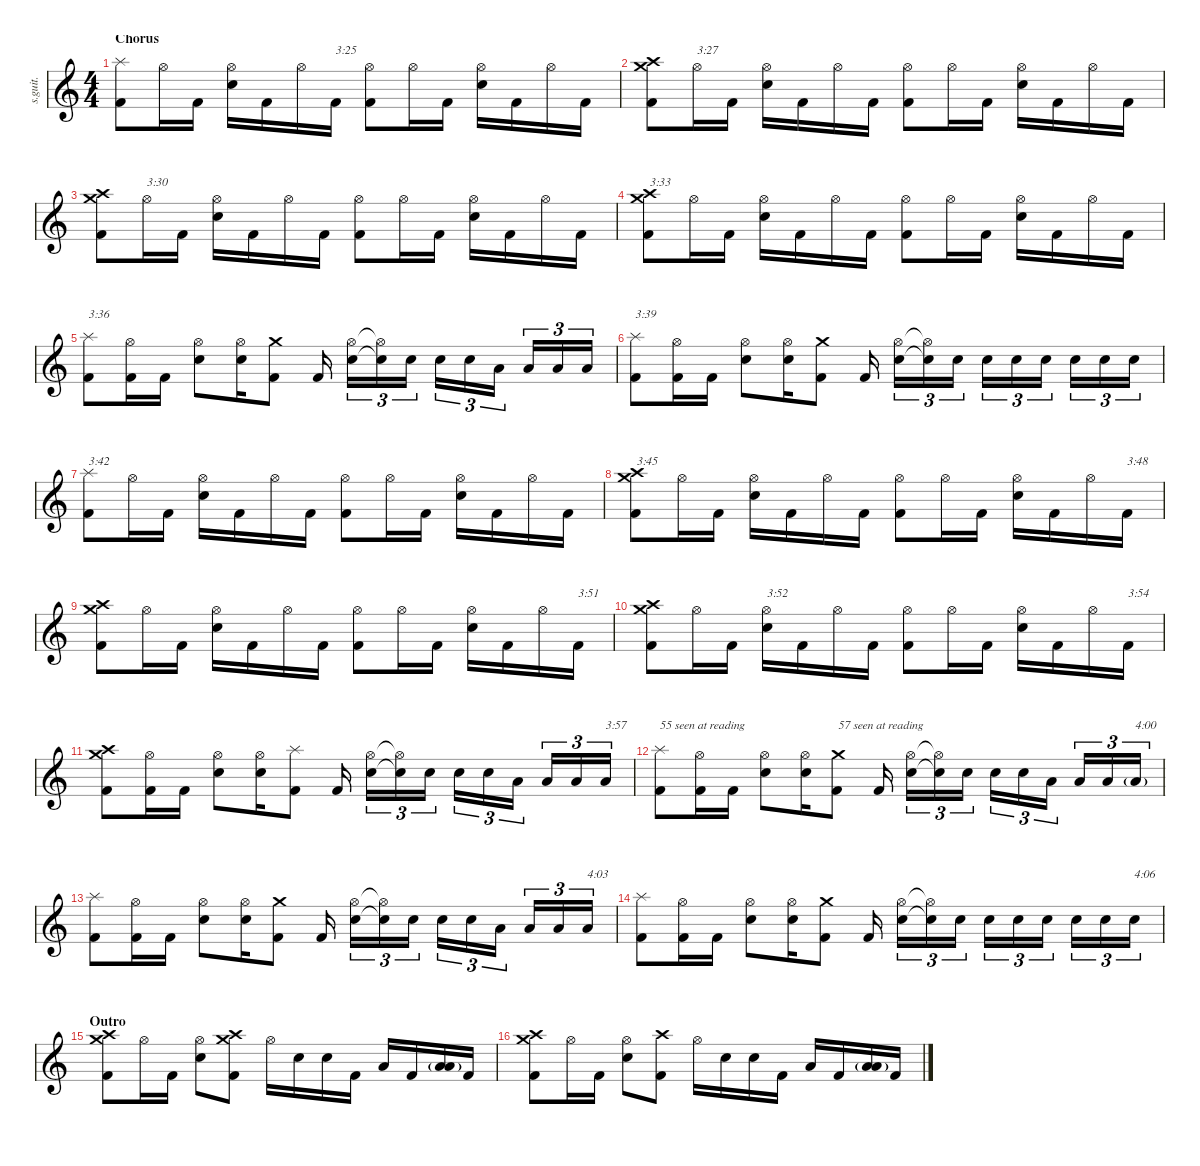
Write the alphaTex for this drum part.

\defaultSystemsLayout 4
\hideDynamics
\bracketExtendMode nobrackets
\track ("Dave Grohl | Drums" "s.guit.") {instrument percussion}
\staff {score}
\articulation defaults
\ts (4 4)
\section ("" "Chorus")
\tempo (79 hide)
\clef g2
\ks c
("Splash (hit)" "Kick (hit) 2").8{lyrics (0 "") lyrics (1 "") lyrics (2 "") lyrics (3 "") lyrics (4 "") dy fff} "Hi-Hat (open)".16{lyrics (0 "") lyrics (1 "") lyrics (2 "") lyrics (3 "") lyrics (4 "")} "Kick (hit) 2".16{lyrics (0 "") lyrics (1 "") lyrics (2 "") lyrics (3 "") lyrics (4 "")} ("Hi-Hat (open)" "Snare (hit) 2").16{lyrics (0 "") lyrics (1 "") lyrics (2 "") lyrics (3 "") lyrics (4 "") dy f} "Kick (hit) 2".16{lyrics (0 "") lyrics (1 "") lyrics (2 "") lyrics (3 "") lyrics (4 "") dy fff} "Hi-Hat (open)".16{lyrics (0 "") lyrics (1 "") lyrics (2 "") lyrics (3 "") lyrics (4 "") dy f} "Kick (hit) 2".16{txt "3:25" lyrics (0 "") lyrics (1 "") lyrics (2 "") lyrics (3 "") lyrics (4 "") dy fff} ("Hi-Hat (open)" "Kick (hit) 2").8{lyrics (0 "") lyrics (1 "") lyrics (2 "") lyrics (3 "") lyrics (4 "") dy f} "Hi-Hat (open)".16{lyrics (0 "") lyrics (1 "") lyrics (2 "") lyrics (3 "") lyrics (4 "")} "Kick (hit) 2".16{lyrics (0 "") lyrics (1 "") lyrics (2 "") lyrics (3 "") lyrics (4 "") dy fff} ("Hi-Hat (open)" "Snare (hit) 2").16{lyrics (0 "") lyrics (1 "") lyrics (2 "") lyrics (3 "") lyrics (4 "") dy f} "Kick (hit) 2".16{lyrics (0 "") lyrics (1 "") lyrics (2 "") lyrics (3 "") lyrics (4 "") dy fff} "Hi-Hat (open)".16{lyrics (0 "") lyrics (1 "") lyrics (2 "") lyrics (3 "") lyrics (4 "") dy f} "Kick (hit) 2".16{lyrics (0 "") lyrics (1 "") lyrics (2 "") lyrics (3 "") lyrics (4 "") dy fff} |
("Crash medium (hit)" "Crash high (hit)" "Kick (hit) 2").8{lyrics (0 "") lyrics (1 "") lyrics (2 "") lyrics (3 "") lyrics (4 "") dy f} "Hi-Hat (open)".16{txt "3:27" lyrics (0 "") lyrics (1 "") lyrics (2 "") lyrics (3 "") lyrics (4 "")} "Kick (hit) 2".16{lyrics (0 "") lyrics (1 "") lyrics (2 "") lyrics (3 "") lyrics (4 "") dy fff} ("Hi-Hat (open)" "Snare (hit) 2").16{lyrics (0 "") lyrics (1 "") lyrics (2 "") lyrics (3 "") lyrics (4 "") dy f} "Kick (hit) 2".16{lyrics (0 "") lyrics (1 "") lyrics (2 "") lyrics (3 "") lyrics (4 "") dy fff} "Hi-Hat (open)".16{lyrics (0 "") lyrics (1 "") lyrics (2 "") lyrics (3 "") lyrics (4 "") dy f} "Kick (hit) 2".16{lyrics (0 "") lyrics (1 "") lyrics (2 "") lyrics (3 "") lyrics (4 "") dy fff} ("Hi-Hat (open)" "Kick (hit) 2").8{lyrics (0 "") lyrics (1 "") lyrics (2 "") lyrics (3 "") lyrics (4 "") dy f} "Hi-Hat (open)".16{lyrics (0 "") lyrics (1 "") lyrics (2 "") lyrics (3 "") lyrics (4 "")} "Kick (hit) 2".16{lyrics (0 "") lyrics (1 "") lyrics (2 "") lyrics (3 "") lyrics (4 "") dy fff} ("Hi-Hat (open)" "Snare (hit) 2").16{lyrics (0 "") lyrics (1 "") lyrics (2 "") lyrics (3 "") lyrics (4 "") dy f} "Kick (hit) 2".16{lyrics (0 "") lyrics (1 "") lyrics (2 "") lyrics (3 "") lyrics (4 "") dy fff} "Hi-Hat (open)".16{lyrics (0 "") lyrics (1 "") lyrics (2 "") lyrics (3 "") lyrics (4 "") dy f} "Kick (hit) 2".16{lyrics (0 "") lyrics (1 "") lyrics (2 "") lyrics (3 "") lyrics (4 "") dy fff} |
("Crash medium (hit)" "Crash high (hit)" "Kick (hit) 2").8{lyrics (0 "") lyrics (1 "") lyrics (2 "") lyrics (3 "") lyrics (4 "") dy f} "Hi-Hat (open)".16{txt "3:30" lyrics (0 "") lyrics (1 "") lyrics (2 "") lyrics (3 "") lyrics (4 "")} "Kick (hit) 2".16{lyrics (0 "") lyrics (1 "") lyrics (2 "") lyrics (3 "") lyrics (4 "")} ("Hi-Hat (open)" "Snare (hit) 2").16{lyrics (0 "") lyrics (1 "") lyrics (2 "") lyrics (3 "") lyrics (4 "")} "Kick (hit) 2".16{lyrics (0 "") lyrics (1 "") lyrics (2 "") lyrics (3 "") lyrics (4 "")} "Hi-Hat (open)".16{lyrics (0 "") lyrics (1 "") lyrics (2 "") lyrics (3 "") lyrics (4 "")} "Kick (hit) 2".16{lyrics (0 "") lyrics (1 "") lyrics (2 "") lyrics (3 "") lyrics (4 "")} ("Hi-Hat (open)" "Kick (hit) 2").8{lyrics (0 "") lyrics (1 "") lyrics (2 "") lyrics (3 "") lyrics (4 "")} "Hi-Hat (open)".16{lyrics (0 "") lyrics (1 "") lyrics (2 "") lyrics (3 "") lyrics (4 "")} "Kick (hit) 2".16{lyrics (0 "") lyrics (1 "") lyrics (2 "") lyrics (3 "") lyrics (4 "")} ("Hi-Hat (open)" "Snare (hit) 2").16{lyrics (0 "") lyrics (1 "") lyrics (2 "") lyrics (3 "") lyrics (4 "")} "Kick (hit) 2".16{lyrics (0 "") lyrics (1 "") lyrics (2 "") lyrics (3 "") lyrics (4 "")} "Hi-Hat (open)".16{lyrics (0 "") lyrics (1 "") lyrics (2 "") lyrics (3 "") lyrics (4 "")} "Kick (hit) 2".16{lyrics (0 "") lyrics (1 "") lyrics (2 "") lyrics (3 "") lyrics (4 "")} |
("Crash medium (hit)" "Crash high (hit)" "Kick (hit) 2").8{txt "3:33" lyrics (0 "") lyrics (1 "") lyrics (2 "") lyrics (3 "") lyrics (4 "")} "Hi-Hat (open)".16{lyrics (0 "") lyrics (1 "") lyrics (2 "") lyrics (3 "") lyrics (4 "")} "Kick (hit) 2".16{lyrics (0 "") lyrics (1 "") lyrics (2 "") lyrics (3 "") lyrics (4 "")} ("Hi-Hat (open)" "Snare (hit) 2").16{lyrics (0 "") lyrics (1 "") lyrics (2 "") lyrics (3 "") lyrics (4 "")} "Kick (hit) 2".16{lyrics (0 "") lyrics (1 "") lyrics (2 "") lyrics (3 "") lyrics (4 "")} "Hi-Hat (open)".16{lyrics (0 "") lyrics (1 "") lyrics (2 "") lyrics (3 "") lyrics (4 "")} "Kick (hit) 2".16{lyrics (0 "") lyrics (1 "") lyrics (2 "") lyrics (3 "") lyrics (4 "")} ("Hi-Hat (open)" "Kick (hit) 2").8{lyrics (0 "") lyrics (1 "") lyrics (2 "") lyrics (3 "") lyrics (4 "")} "Hi-Hat (open)".16{lyrics (0 "") lyrics (1 "") lyrics (2 "") lyrics (3 "") lyrics (4 "")} "Kick (hit) 2".16{lyrics (0 "") lyrics (1 "") lyrics (2 "") lyrics (3 "") lyrics (4 "")} ("Hi-Hat (open)" "Snare (hit) 2").16{lyrics (0 "") lyrics (1 "") lyrics (2 "") lyrics (3 "") lyrics (4 "")} "Kick (hit) 2".16{lyrics (0 "") lyrics (1 "") lyrics (2 "") lyrics (3 "") lyrics (4 "")} "Hi-Hat (open)".16{lyrics (0 "") lyrics (1 "") lyrics (2 "") lyrics (3 "") lyrics (4 "")} "Kick (hit) 2".16{lyrics (0 "") lyrics (1 "") lyrics (2 "") lyrics (3 "") lyrics (4 "")} |
("Splash (hit)" "Kick (hit) 2").8{txt "3:36" lyrics (0 "") lyrics (1 "") lyrics (2 "") lyrics (3 "") lyrics (4 "")} ("Hi-Hat (open)" "Kick (hit) 2").16{lyrics (0 "") lyrics (1 "") lyrics (2 "") lyrics (3 "") lyrics (4 "")} "Kick (hit) 2".16{lyrics (0 "") lyrics (1 "") lyrics (2 "") lyrics (3 "") lyrics (4 "") dy fff} ("Hi-Hat (open)" "Snare (hit) 2").8{lyrics (0 "") lyrics (1 "") lyrics (2 "") lyrics (3 "") lyrics (4 "") dy f} ("Hi-Hat (open)" "Snare (hit) 2").16{lyrics (0 "") lyrics (1 "") lyrics (2 "") lyrics (3 "") lyrics (4 "")} ("Crash medium (hit)" "Kick (hit) 2").8{lyrics (0 "") lyrics (1 "") lyrics (2 "") lyrics (3 "") lyrics (4 "")} "Kick (hit) 2".16{lyrics (0 "") lyrics (1 "") lyrics (2 "") lyrics (3 "") lyrics (4 "") dy fff} ("Hi-Hat (open)" "Snare (hit) 2").16{tu (3 2) lyrics (0 "") lyrics (1 "") lyrics (2 "") lyrics (3 "") lyrics (4 "") dy f} ("Hi-Hat (open)"{t} "Snare (hit) 2"{t}).16{tu (3 2) lyrics (0 "") lyrics (1 "") lyrics (2 "") lyrics (3 "") lyrics (4 "")} "Snare (hit) 2".16{tu (3 2) lyrics (0 "") lyrics (1 "") lyrics (2 "") lyrics (3 "") lyrics (4 "")} "Snare (hit) 2".16{tu (3 2) lyrics (0 "") lyrics (1 "") lyrics (2 "") lyrics (3 "") lyrics (4 "")} "Snare (hit) 2".16{tu (3 2) lyrics (0 "") lyrics (1 "") lyrics (2 "") lyrics (3 "") lyrics (4 "")} "Low Tom (hit)".16{tu (3 2) lyrics (0 "") lyrics (1 "") lyrics (2 "") lyrics (3 "") lyrics (4 "")} "Low Tom (hit)".16{tu (3 2) lyrics (0 "") lyrics (1 "") lyrics (2 "") lyrics (3 "") lyrics (4 "")} "Low Floor Tom (hit)".16{tu (3 2) lyrics (0 "") lyrics (1 "") lyrics (2 "") lyrics (3 "") lyrics (4 "")} "Low Floor Tom (hit)".16{tu (3 2) lyrics (0 "") lyrics (1 "") lyrics (2 "") lyrics (3 "") lyrics (4 "")} |
("Splash (hit)" "Kick (hit) 2").8{txt "3:39" lyrics (0 "") lyrics (1 "") lyrics (2 "") lyrics (3 "") lyrics (4 "")} ("Hi-Hat (open)" "Kick (hit) 2").16{lyrics (0 "") lyrics (1 "") lyrics (2 "") lyrics (3 "") lyrics (4 "")} "Kick (hit) 2".16{lyrics (0 "") lyrics (1 "") lyrics (2 "") lyrics (3 "") lyrics (4 "")} ("Hi-Hat (open)" "Snare (hit) 2").8{lyrics (0 "") lyrics (1 "") lyrics (2 "") lyrics (3 "") lyrics (4 "")} ("Hi-Hat (open)" "Snare (hit) 2").16{lyrics (0 "") lyrics (1 "") lyrics (2 "") lyrics (3 "") lyrics (4 "")} ("Crash medium (hit)" "Kick (hit) 2").8{lyrics (0 "") lyrics (1 "") lyrics (2 "") lyrics (3 "") lyrics (4 "")} "Kick (hit) 2".16{lyrics (0 "") lyrics (1 "") lyrics (2 "") lyrics (3 "") lyrics (4 "")} ("Hi-Hat (open)" "Snare (hit) 2").16{tu (3 2) lyrics (0 "") lyrics (1 "") lyrics (2 "") lyrics (3 "") lyrics (4 "")} ("Hi-Hat (open)"{t} "Snare (hit) 2"{t}).16{tu (3 2) lyrics (0 "") lyrics (1 "") lyrics (2 "") lyrics (3 "") lyrics (4 "")} "Snare (hit) 2".16{tu (3 2) lyrics (0 "") lyrics (1 "") lyrics (2 "") lyrics (3 "") lyrics (4 "")} "Snare (hit) 2".16{tu (3 2) lyrics (0 "") lyrics (1 "") lyrics (2 "") lyrics (3 "") lyrics (4 "")} "Snare (hit) 2".16{tu (3 2) lyrics (0 "") lyrics (1 "") lyrics (2 "") lyrics (3 "") lyrics (4 "")} "Snare (hit) 2".16{tu (3 2) lyrics (0 "") lyrics (1 "") lyrics (2 "") lyrics (3 "") lyrics (4 "")} "Snare (hit) 2".16{tu (3 2) lyrics (0 "") lyrics (1 "") lyrics (2 "") lyrics (3 "") lyrics (4 "")} "Snare (hit) 2".16{tu (3 2) lyrics (0 "") lyrics (1 "") lyrics (2 "") lyrics (3 "") lyrics (4 "")} "Snare (hit) 2".16{tu (3 2) lyrics (0 "") lyrics (1 "") lyrics (2 "") lyrics (3 "") lyrics (4 "")} |
("Splash (hit)" "Kick (hit) 2").8{txt "3:42" lyrics (0 "") lyrics (1 "") lyrics (2 "") lyrics (3 "") lyrics (4 "")} "Hi-Hat (open)".16{lyrics (0 "") lyrics (1 "") lyrics (2 "") lyrics (3 "") lyrics (4 "")} "Kick (hit) 2".16{lyrics (0 "") lyrics (1 "") lyrics (2 "") lyrics (3 "") lyrics (4 "") dy fff} ("Hi-Hat (open)" "Snare (hit) 2").16{lyrics (0 "") lyrics (1 "") lyrics (2 "") lyrics (3 "") lyrics (4 "") dy f} "Kick (hit) 2".16{lyrics (0 "") lyrics (1 "") lyrics (2 "") lyrics (3 "") lyrics (4 "") dy fff} "Hi-Hat (open)".16{lyrics (0 "") lyrics (1 "") lyrics (2 "") lyrics (3 "") lyrics (4 "") dy f} "Kick (hit) 2".16{lyrics (0 "") lyrics (1 "") lyrics (2 "") lyrics (3 "") lyrics (4 "") dy fff} ("Hi-Hat (open)" "Kick (hit) 2").8{lyrics (0 "") lyrics (1 "") lyrics (2 "") lyrics (3 "") lyrics (4 "") dy f} "Hi-Hat (open)".16{lyrics (0 "") lyrics (1 "") lyrics (2 "") lyrics (3 "") lyrics (4 "")} "Kick (hit) 2".16{lyrics (0 "") lyrics (1 "") lyrics (2 "") lyrics (3 "") lyrics (4 "") dy fff} ("Hi-Hat (open)" "Snare (hit) 2").16{lyrics (0 "") lyrics (1 "") lyrics (2 "") lyrics (3 "") lyrics (4 "") dy f} "Kick (hit) 2".16{lyrics (0 "") lyrics (1 "") lyrics (2 "") lyrics (3 "") lyrics (4 "") dy fff} "Hi-Hat (open)".16{lyrics (0 "") lyrics (1 "") lyrics (2 "") lyrics (3 "") lyrics (4 "") dy f} "Kick (hit) 2".16{lyrics (0 "") lyrics (1 "") lyrics (2 "") lyrics (3 "") lyrics (4 "") dy fff} |
("Crash medium (hit)" "Crash high (hit)" "Kick (hit) 2").8{txt "3:45" lyrics (0 "") lyrics (1 "") lyrics (2 "") lyrics (3 "") lyrics (4 "") dy f} "Hi-Hat (open)".16{lyrics (0 "") lyrics (1 "") lyrics (2 "") lyrics (3 "") lyrics (4 "")} "Kick (hit) 2".16{lyrics (0 "") lyrics (1 "") lyrics (2 "") lyrics (3 "") lyrics (4 "") dy fff} ("Hi-Hat (open)" "Snare (hit) 2").16{lyrics (0 "") lyrics (1 "") lyrics (2 "") lyrics (3 "") lyrics (4 "") dy f} "Kick (hit) 2".16{lyrics (0 "") lyrics (1 "") lyrics (2 "") lyrics (3 "") lyrics (4 "") dy fff} "Hi-Hat (open)".16{lyrics (0 "") lyrics (1 "") lyrics (2 "") lyrics (3 "") lyrics (4 "") dy f} "Kick (hit) 2".16{lyrics (0 "") lyrics (1 "") lyrics (2 "") lyrics (3 "") lyrics (4 "") dy fff} ("Hi-Hat (open)" "Kick (hit) 2").8{lyrics (0 "") lyrics (1 "") lyrics (2 "") lyrics (3 "") lyrics (4 "") dy f} "Hi-Hat (open)".16{lyrics (0 "") lyrics (1 "") lyrics (2 "") lyrics (3 "") lyrics (4 "")} "Kick (hit) 2".16{lyrics (0 "") lyrics (1 "") lyrics (2 "") lyrics (3 "") lyrics (4 "") dy fff} ("Hi-Hat (open)" "Snare (hit) 2").16{lyrics (0 "") lyrics (1 "") lyrics (2 "") lyrics (3 "") lyrics (4 "") dy f} "Kick (hit) 2".16{lyrics (0 "") lyrics (1 "") lyrics (2 "") lyrics (3 "") lyrics (4 "") dy fff} "Hi-Hat (open)".16{lyrics (0 "") lyrics (1 "") lyrics (2 "") lyrics (3 "") lyrics (4 "") dy f} "Kick (hit) 2".16{txt "3:48" lyrics (0 "") lyrics (1 "") lyrics (2 "") lyrics (3 "") lyrics (4 "") dy fff} |
("Crash medium (hit)" "Crash high (hit)" "Kick (hit) 2").8{lyrics (0 "") lyrics (1 "") lyrics (2 "") lyrics (3 "") lyrics (4 "") dy f} "Hi-Hat (open)".16{lyrics (0 "") lyrics (1 "") lyrics (2 "") lyrics (3 "") lyrics (4 "")} "Kick (hit) 2".16{lyrics (0 "") lyrics (1 "") lyrics (2 "") lyrics (3 "") lyrics (4 "")} ("Hi-Hat (open)" "Snare (hit) 2").16{lyrics (0 "") lyrics (1 "") lyrics (2 "") lyrics (3 "") lyrics (4 "")} "Kick (hit) 2".16{lyrics (0 "") lyrics (1 "") lyrics (2 "") lyrics (3 "") lyrics (4 "")} "Hi-Hat (open)".16{lyrics (0 "") lyrics (1 "") lyrics (2 "") lyrics (3 "") lyrics (4 "")} "Kick (hit) 2".16{lyrics (0 "") lyrics (1 "") lyrics (2 "") lyrics (3 "") lyrics (4 "")} ("Hi-Hat (open)" "Kick (hit) 2").8{lyrics (0 "") lyrics (1 "") lyrics (2 "") lyrics (3 "") lyrics (4 "")} "Hi-Hat (open)".16{lyrics (0 "") lyrics (1 "") lyrics (2 "") lyrics (3 "") lyrics (4 "")} "Kick (hit) 2".16{lyrics (0 "") lyrics (1 "") lyrics (2 "") lyrics (3 "") lyrics (4 "")} ("Hi-Hat (open)" "Snare (hit) 2").16{lyrics (0 "") lyrics (1 "") lyrics (2 "") lyrics (3 "") lyrics (4 "")} "Kick (hit) 2".16{lyrics (0 "") lyrics (1 "") lyrics (2 "") lyrics (3 "") lyrics (4 "")} "Hi-Hat (open)".16{lyrics (0 "") lyrics (1 "") lyrics (2 "") lyrics (3 "") lyrics (4 "")} "Kick (hit) 2".16{txt "3:51" lyrics (0 "") lyrics (1 "") lyrics (2 "") lyrics (3 "") lyrics (4 "")} |
("Crash medium (hit)" "Crash high (hit)" "Kick (hit) 2").8{lyrics (0 "") lyrics (1 "") lyrics (2 "") lyrics (3 "") lyrics (4 "")} "Hi-Hat (open)".16{lyrics (0 "") lyrics (1 "") lyrics (2 "") lyrics (3 "") lyrics (4 "")} "Kick (hit) 2".16{lyrics (0 "") lyrics (1 "") lyrics (2 "") lyrics (3 "") lyrics (4 "")} ("Hi-Hat (open)" "Snare (hit) 2").16{txt "3:52" lyrics (0 "") lyrics (1 "") lyrics (2 "") lyrics (3 "") lyrics (4 "")} "Kick (hit) 2".16{lyrics (0 "") lyrics (1 "") lyrics (2 "") lyrics (3 "") lyrics (4 "")} "Hi-Hat (open)".16{lyrics (0 "") lyrics (1 "") lyrics (2 "") lyrics (3 "") lyrics (4 "")} "Kick (hit) 2".16{lyrics (0 "") lyrics (1 "") lyrics (2 "") lyrics (3 "") lyrics (4 "")} ("Hi-Hat (open)" "Kick (hit) 2").8{lyrics (0 "") lyrics (1 "") lyrics (2 "") lyrics (3 "") lyrics (4 "")} "Hi-Hat (open)".16{lyrics (0 "") lyrics (1 "") lyrics (2 "") lyrics (3 "") lyrics (4 "")} "Kick (hit) 2".16{lyrics (0 "") lyrics (1 "") lyrics (2 "") lyrics (3 "") lyrics (4 "")} ("Hi-Hat (open)" "Snare (hit) 2").16{lyrics (0 "") lyrics (1 "") lyrics (2 "") lyrics (3 "") lyrics (4 "")} "Kick (hit) 2".16{lyrics (0 "") lyrics (1 "") lyrics (2 "") lyrics (3 "") lyrics (4 "")} "Hi-Hat (open)".16{lyrics (0 "") lyrics (1 "") lyrics (2 "") lyrics (3 "") lyrics (4 "")} "Kick (hit) 2".16{txt "3:54" lyrics (0 "") lyrics (1 "") lyrics (2 "") lyrics (3 "") lyrics (4 "")} |
("Crash medium (hit)" "Crash high (hit)" "Kick (hit) 2").8{lyrics (0 "") lyrics (1 "") lyrics (2 "") lyrics (3 "") lyrics (4 "")} ("Hi-Hat (open)" "Kick (hit) 2").16{lyrics (0 "") lyrics (1 "") lyrics (2 "") lyrics (3 "") lyrics (4 "")} "Kick (hit) 2".16{lyrics (0 "") lyrics (1 "") lyrics (2 "") lyrics (3 "") lyrics (4 "") dy fff} ("Hi-Hat (open)" "Snare (hit) 2").8{lyrics (0 "") lyrics (1 "") lyrics (2 "") lyrics (3 "") lyrics (4 "") dy f} ("Hi-Hat (open)" "Snare (hit) 2").16{lyrics (0 "") lyrics (1 "") lyrics (2 "") lyrics (3 "") lyrics (4 "")} ("Splash (hit)" "Kick (hit) 2").8{lyrics (0 "") lyrics (1 "") lyrics (2 "") lyrics (3 "") lyrics (4 "")} "Kick (hit) 2".16{lyrics (0 "") lyrics (1 "") lyrics (2 "") lyrics (3 "") lyrics (4 "") dy fff} ("Hi-Hat (open)" "Snare (hit) 2").16{tu (3 2) lyrics (0 "") lyrics (1 "") lyrics (2 "") lyrics (3 "") lyrics (4 "") dy f} ("Hi-Hat (open)"{t} "Snare (hit) 2"{t}).16{tu (3 2) lyrics (0 "") lyrics (1 "") lyrics (2 "") lyrics (3 "") lyrics (4 "")} "Snare (hit) 2".16{tu (3 2) lyrics (0 "") lyrics (1 "") lyrics (2 "") lyrics (3 "") lyrics (4 "")} "Snare (hit) 2".16{tu (3 2) lyrics (0 "") lyrics (1 "") lyrics (2 "") lyrics (3 "") lyrics (4 "")} "Snare (hit) 2".16{tu (3 2) lyrics (0 "") lyrics (1 "") lyrics (2 "") lyrics (3 "") lyrics (4 "")} "Low Tom (hit)".16{tu (3 2) lyrics (0 "") lyrics (1 "") lyrics (2 "") lyrics (3 "") lyrics (4 "")} "Low Tom (hit)".16{tu (3 2) lyrics (0 "") lyrics (1 "") lyrics (2 "") lyrics (3 "") lyrics (4 "")} "Low Floor Tom (hit)".16{tu (3 2) lyrics (0 "") lyrics (1 "") lyrics (2 "") lyrics (3 "") lyrics (4 "")} "Low Floor Tom (hit)".16{tu (3 2) txt "3:57" lyrics (0 "") lyrics (1 "") lyrics (2 "") lyrics (3 "") lyrics (4 "")} |
("Splash (hit)" "Kick (hit) 2").8{txt "55 seen at reading" lyrics (0 "") lyrics (1 "") lyrics (2 "") lyrics (3 "") lyrics (4 "")} ("Hi-Hat (open)" "Kick (hit) 2").16{lyrics (0 "") lyrics (1 "") lyrics (2 "") lyrics (3 "") lyrics (4 "")} "Kick (hit) 2".16{lyrics (0 "") lyrics (1 "") lyrics (2 "") lyrics (3 "") lyrics (4 "") dy fff} ("Hi-Hat (open)" "Snare (hit) 2").8{lyrics (0 "") lyrics (1 "") lyrics (2 "") lyrics (3 "") lyrics (4 "") dy f} ("Hi-Hat (open)" "Snare (hit) 2").16{lyrics (0 "") lyrics (1 "") lyrics (2 "") lyrics (3 "") lyrics (4 "")} ("Crash medium (hit)" "Kick (hit) 2").8{txt "57 seen at reading" lyrics (0 "") lyrics (1 "") lyrics (2 "") lyrics (3 "") lyrics (4 "")} "Kick (hit) 2".16{lyrics (0 "") lyrics (1 "") lyrics (2 "") lyrics (3 "") lyrics (4 "") dy fff} ("Hi-Hat (open)" "Snare (hit) 2").16{tu (3 2) lyrics (0 "") lyrics (1 "") lyrics (2 "") lyrics (3 "") lyrics (4 "") dy f} ("Hi-Hat (open)"{t} "Snare (hit) 2"{t}).16{tu (3 2) lyrics (0 "") lyrics (1 "") lyrics (2 "") lyrics (3 "") lyrics (4 "")} "Snare (hit) 2".16{tu (3 2) lyrics (0 "") lyrics (1 "") lyrics (2 "") lyrics (3 "") lyrics (4 "")} "Snare (hit) 2".16{tu (3 2) lyrics (0 "") lyrics (1 "") lyrics (2 "") lyrics (3 "") lyrics (4 "")} "Snare (hit) 2".16{tu (3 2) lyrics (0 "") lyrics (1 "") lyrics (2 "") lyrics (3 "") lyrics (4 "")} "Low Tom (hit)".16{tu (3 2) lyrics (0 "") lyrics (1 "") lyrics (2 "") lyrics (3 "") lyrics (4 "")} "Low Tom (hit)".16{tu (3 2) lyrics (0 "") lyrics (1 "") lyrics (2 "") lyrics (3 "") lyrics (4 "")} "Low Floor Tom (hit)".16{tu (3 2) lyrics (0 "") lyrics (1 "") lyrics (2 "") lyrics (3 "") lyrics (4 "")} "Low Floor Tom (hit)"{g}.16{tu (3 2) txt "4:00" lyrics (0 "") lyrics (1 "") lyrics (2 "") lyrics (3 "") lyrics (4 "") dy ff} |
("Splash (hit)" "Kick (hit) 2").8{lyrics (0 "") lyrics (1 "") lyrics (2 "") lyrics (3 "") lyrics (4 "") dy f} ("Hi-Hat (open)" "Kick (hit) 2").16{lyrics (0 "") lyrics (1 "") lyrics (2 "") lyrics (3 "") lyrics (4 "")} "Kick (hit) 2".16{lyrics (0 "") lyrics (1 "") lyrics (2 "") lyrics (3 "") lyrics (4 "") dy fff} ("Hi-Hat (open)" "Snare (hit) 2").8{lyrics (0 "") lyrics (1 "") lyrics (2 "") lyrics (3 "") lyrics (4 "") dy f} ("Hi-Hat (open)" "Snare (hit) 2").16{lyrics (0 "") lyrics (1 "") lyrics (2 "") lyrics (3 "") lyrics (4 "")} ("Crash medium (hit)" "Kick (hit) 2").8{lyrics (0 "") lyrics (1 "") lyrics (2 "") lyrics (3 "") lyrics (4 "")} "Kick (hit) 2".16{lyrics (0 "") lyrics (1 "") lyrics (2 "") lyrics (3 "") lyrics (4 "") dy fff} ("Hi-Hat (open)" "Snare (hit) 2").16{tu (3 2) lyrics (0 "") lyrics (1 "") lyrics (2 "") lyrics (3 "") lyrics (4 "") dy f} ("Hi-Hat (open)"{t} "Snare (hit) 2"{t}).16{tu (3 2) lyrics (0 "") lyrics (1 "") lyrics (2 "") lyrics (3 "") lyrics (4 "")} "Snare (hit) 2".16{tu (3 2) lyrics (0 "") lyrics (1 "") lyrics (2 "") lyrics (3 "") lyrics (4 "")} "Snare (hit) 2".16{tu (3 2) lyrics (0 "") lyrics (1 "") lyrics (2 "") lyrics (3 "") lyrics (4 "")} "Snare (hit) 2".16{tu (3 2) lyrics (0 "") lyrics (1 "") lyrics (2 "") lyrics (3 "") lyrics (4 "")} "Low Tom (hit)".16{tu (3 2) lyrics (0 "") lyrics (1 "") lyrics (2 "") lyrics (3 "") lyrics (4 "")} "Low Tom (hit)".16{tu (3 2) lyrics (0 "") lyrics (1 "") lyrics (2 "") lyrics (3 "") lyrics (4 "")} "Low Floor Tom (hit)".16{tu (3 2) lyrics (0 "") lyrics (1 "") lyrics (2 "") lyrics (3 "") lyrics (4 "")} "Low Floor Tom (hit)".16{tu (3 2) txt "4:03" lyrics (0 "") lyrics (1 "") lyrics (2 "") lyrics (3 "") lyrics (4 "")} |
("Splash (hit)" "Kick (hit) 2").8{lyrics (0 "") lyrics (1 "") lyrics (2 "") lyrics (3 "") lyrics (4 "")} ("Hi-Hat (open)" "Kick (hit) 2").16{lyrics (0 "") lyrics (1 "") lyrics (2 "") lyrics (3 "") lyrics (4 "")} "Kick (hit) 2".16{lyrics (0 "") lyrics (1 "") lyrics (2 "") lyrics (3 "") lyrics (4 "")} ("Hi-Hat (open)" "Snare (hit) 2").8{lyrics (0 "") lyrics (1 "") lyrics (2 "") lyrics (3 "") lyrics (4 "")} ("Hi-Hat (open)" "Snare (hit) 2").16{lyrics (0 "") lyrics (1 "") lyrics (2 "") lyrics (3 "") lyrics (4 "")} ("Crash medium (hit)" "Kick (hit) 2").8{lyrics (0 "") lyrics (1 "") lyrics (2 "") lyrics (3 "") lyrics (4 "")} "Kick (hit) 2".16{lyrics (0 "") lyrics (1 "") lyrics (2 "") lyrics (3 "") lyrics (4 "")} ("Hi-Hat (open)" "Snare (hit) 2").16{tu (3 2) lyrics (0 "") lyrics (1 "") lyrics (2 "") lyrics (3 "") lyrics (4 "")} ("Hi-Hat (open)"{t} "Snare (hit) 2"{t}).16{tu (3 2) lyrics (0 "") lyrics (1 "") lyrics (2 "") lyrics (3 "") lyrics (4 "")} "Snare (hit) 2".16{tu (3 2) lyrics (0 "") lyrics (1 "") lyrics (2 "") lyrics (3 "") lyrics (4 "")} "Snare (hit) 2".16{tu (3 2) lyrics (0 "") lyrics (1 "") lyrics (2 "") lyrics (3 "") lyrics (4 "")} "Snare (hit) 2".16{tu (3 2) lyrics (0 "") lyrics (1 "") lyrics (2 "") lyrics (3 "") lyrics (4 "")} "Snare (hit) 2".16{tu (3 2) lyrics (0 "") lyrics (1 "") lyrics (2 "") lyrics (3 "") lyrics (4 "")} "Snare (hit) 2".16{tu (3 2) lyrics (0 "") lyrics (1 "") lyrics (2 "") lyrics (3 "") lyrics (4 "")} "Snare (hit) 2".16{tu (3 2) lyrics (0 "") lyrics (1 "") lyrics (2 "") lyrics (3 "") lyrics (4 "")} "Snare (hit) 2".16{tu (3 2) txt "4:06" lyrics (0 "") lyrics (1 "") lyrics (2 "") lyrics (3 "") lyrics (4 "")} |
\section ("" "Outro")
("Crash medium (hit)" "Crash high (hit)" "Kick (hit) 2").8{lyrics (0 "") lyrics (1 "") lyrics (2 "") lyrics (3 "") lyrics (4 "")} "Hi-Hat (open)".16{lyrics (0 "") lyrics (1 "") lyrics (2 "") lyrics (3 "") lyrics (4 "")} "Kick (hit) 2".16{lyrics (0 "") lyrics (1 "") lyrics (2 "") lyrics (3 "") lyrics (4 "") dy fff} ("Hi-Hat (open)" "Snare (hit) 2").8{lyrics (0 "") lyrics (1 "") lyrics (2 "") lyrics (3 "") lyrics (4 "") dy f} ("Crash medium (hit)" "Crash high (hit)" "Kick (hit) 2").8{lyrics (0 "") lyrics (1 "") lyrics (2 "") lyrics (3 "") lyrics (4 "")} "Hi-Hat (open)".16{lyrics (0 "") lyrics (1 "") lyrics (2 "") lyrics (3 "") lyrics (4 "")} "Snare (hit) 2".16{lyrics (0 "") lyrics (1 "") lyrics (2 "") lyrics (3 "") lyrics (4 "")} "Snare (hit) 2".16{lyrics (0 "") lyrics (1 "") lyrics (2 "") lyrics (3 "") lyrics (4 "")} "Kick (hit) 2".16{lyrics (0 "") lyrics (1 "") lyrics (2 "") lyrics (3 "") lyrics (4 "") dy fff} "Low Tom (hit)".16{lyrics (0 "") lyrics (1 "") lyrics (2 "") lyrics (3 "") lyrics (4 "") dy f} "Kick (hit) 2".16{lyrics (0 "") lyrics (1 "") lyrics (2 "") lyrics (3 "") lyrics (4 "") dy fff} ("Low Tom (hit)"{g} "Low Floor Tom (hit)").16{lyrics (0 "") lyrics (1 "") lyrics (2 "") lyrics (3 "") lyrics (4 "") dy f} "Kick (hit) 2".16{lyrics (0 "") lyrics (1 "") lyrics (2 "") lyrics (3 "") lyrics (4 "") dy fff} |
("Crash medium (hit)" "Crash high (hit)" "Kick (hit) 2").8{lyrics (0 "") lyrics (1 "") lyrics (2 "") lyrics (3 "") lyrics (4 "") dy f} "Hi-Hat (open)".16{lyrics (0 "") lyrics (1 "") lyrics (2 "") lyrics (3 "") lyrics (4 "")} "Kick (hit) 2".16{lyrics (0 "") lyrics (1 "") lyrics (2 "") lyrics (3 "") lyrics (4 "") dy fff} ("Hi-Hat (open)" "Snare (hit) 2").8{lyrics (0 "") lyrics (1 "") lyrics (2 "") lyrics (3 "") lyrics (4 "") dy f} ("Crash high (hit)" "Kick (hit) 2").8{lyrics (0 "") lyrics (1 "") lyrics (2 "") lyrics (3 "") lyrics (4 "")} "Hi-Hat (open)".16{lyrics (0 "") lyrics (1 "") lyrics (2 "") lyrics (3 "") lyrics (4 "")} "Snare (hit) 2".16{lyrics (0 "") lyrics (1 "") lyrics (2 "") lyrics (3 "") lyrics (4 "")} "Snare (hit) 2".16{lyrics (0 "") lyrics (1 "") lyrics (2 "") lyrics (3 "") lyrics (4 "")} "Kick (hit) 2".16{lyrics (0 "") lyrics (1 "") lyrics (2 "") lyrics (3 "") lyrics (4 "")} "Low Tom (hit)".16{lyrics (0 "") lyrics (1 "") lyrics (2 "") lyrics (3 "") lyrics (4 "")} "Kick (hit) 2".16{lyrics (0 "") lyrics (1 "") lyrics (2 "") lyrics (3 "") lyrics (4 "")} ("Low Tom (hit)"{g} "Low Floor Tom (hit)").16{lyrics (0 "") lyrics (1 "") lyrics (2 "") lyrics (3 "") lyrics (4 "")} "Kick (hit) 2".16{lyrics (0 "") lyrics (1 "") lyrics (2 "") lyrics (3 "") lyrics (4 "")}
